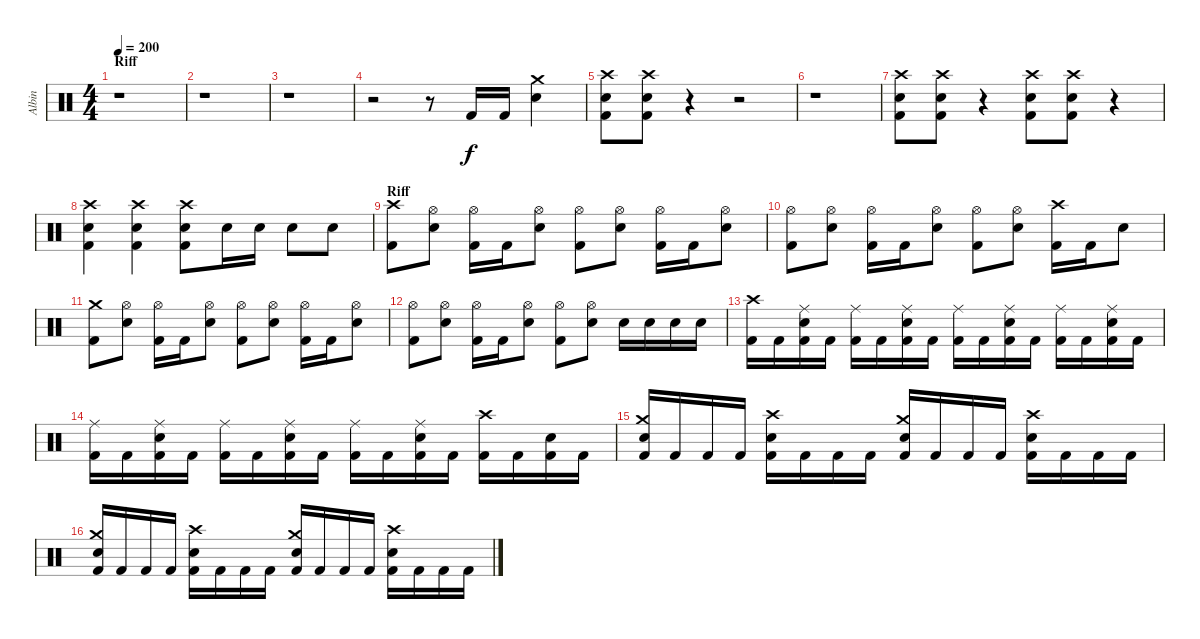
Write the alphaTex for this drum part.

\track ("Albin" "Albin") {instrument percussion}
\staff {score}
\articulation defaults
\ts (4 4)
\section ("" "Riff")
\tempo 200
\clef neutral
\ks c
r.1{dy f} |
r.1 |
r.1 |
r.2 r.8 "Kick (hit) 2".16 "Kick (hit) 2".16 ("Crash medium (hit)" "Snare (hit) 2").4 |
("Crash high (hit)" "Snare (hit) 2" "Kick (hit) 2").8 ("Crash high (hit)" "Snare (hit) 2" "Kick (hit) 2").8 r.4 r.2 |
r.1 |
("Crash high (hit)" "Snare (hit) 2" "Kick (hit) 2").8 ("Crash high (hit)" "Snare (hit) 2" "Kick (hit) 2").8 r.4 ("Crash high (hit)" "Snare (hit) 2" "Kick (hit) 2").8 ("Crash high (hit)" "Snare (hit) 2" "Kick (hit) 2").8 r.4 |
("Crash high (hit)" "Snare (hit) 2" "Kick (hit) 2").4 ("Crash high (hit)" "Snare (hit) 2" "Kick (hit) 2").4 ("Crash high (hit)" "Snare (hit) 2" "Kick (hit) 2").8 "Snare (hit) 2".16 "Snare (hit) 2".16 "Snare (hit) 2".8 "Snare (hit) 2".8 |
\section ("" "Riff")
("Crash high (hit)" "Kick (hit) 2").8 ("Hi-Hat (open)" "Snare (hit) 2").8 ("Hi-Hat (open)" "Kick (hit) 2").16 "Kick (hit) 2".16 ("Hi-Hat (open)" "Snare (hit) 2").8 ("Hi-Hat (open)" "Kick (hit) 2").8 ("Hi-Hat (open)" "Snare (hit) 2").8 ("Hi-Hat (open)" "Kick (hit) 2").16 "Kick (hit) 2".16 ("Hi-Hat (open)" "Snare (hit) 2").8 |
("Hi-Hat (open)" "Kick (hit) 2").8 ("Hi-Hat (open)" "Snare (hit) 2").8 ("Hi-Hat (open)" "Kick (hit) 2").16 "Kick (hit) 2".16 ("Hi-Hat (open)" "Snare (hit) 2").8 ("Hi-Hat (open)" "Kick (hit) 2").8 ("Hi-Hat (open)" "Snare (hit) 2").8 ("Crash high (hit)" "Kick (hit) 2").16 "Kick (hit) 2".16 "Snare (hit) 2".8 |
("Crash medium (hit)" "Kick (hit) 2").8 ("Hi-Hat (open)" "Snare (hit) 2").8 ("Hi-Hat (open)" "Kick (hit) 2").16 "Kick (hit) 2".16 ("Hi-Hat (open)" "Snare (hit) 2").8 ("Hi-Hat (open)" "Kick (hit) 2").8 ("Hi-Hat (open)" "Snare (hit) 2").8 ("Hi-Hat (open)" "Kick (hit) 2").16 "Kick (hit) 2".16 ("Hi-Hat (open)" "Snare (hit) 2").8 |
("Hi-Hat (open)" "Kick (hit) 2").8 ("Hi-Hat (open)" "Snare (hit) 2").8 ("Hi-Hat (open)" "Kick (hit) 2").16 "Kick (hit) 2".16 ("Hi-Hat (open)" "Snare (hit) 2").8 ("Hi-Hat (open)" "Kick (hit) 2").8 ("Hi-Hat (open)" "Snare (hit) 2").8 "Snare (hit) 2".16 "Snare (hit) 2".16 "Snare (hit) 2".16 "Snare (hit) 2".16 |
("Crash high (hit)" "Kick (hit) 2").16 "Kick (hit) 2".16 ("Ride (middle)" "Snare (hit) 2" "Kick (hit) 2").16 "Kick (hit) 2".16 ("Ride (middle)" "Kick (hit) 2").16 "Kick (hit) 2".16 ("Ride (middle)" "Snare (hit) 2" "Kick (hit) 2").16 "Kick (hit) 2".16 ("Ride (middle)" "Kick (hit) 2").16 "Kick (hit) 2".16 ("Ride (middle)" "Snare (hit) 2" "Kick (hit) 2").16 "Kick (hit) 2".16 ("Ride (middle)" "Kick (hit) 2").16 "Kick (hit) 2".16 ("Ride (middle)" "Snare (hit) 2" "Kick (hit) 2").16 "Kick (hit) 2".16 |
("Ride (middle)" "Kick (hit) 2").16 "Kick (hit) 2".16 ("Ride (middle)" "Snare (hit) 2" "Kick (hit) 2").16 "Kick (hit) 2".16 ("Ride (middle)" "Kick (hit) 2").16 "Kick (hit) 2".16 ("Ride (middle)" "Snare (hit) 2" "Kick (hit) 2").16 "Kick (hit) 2".16 ("Ride (middle)" "Kick (hit) 2").16 "Kick (hit) 2".16 ("Ride (middle)" "Snare (hit) 2" "Kick (hit) 2").16 "Kick (hit) 2".16 ("Crash high (hit)" "Kick (hit) 2").16 "Kick (hit) 2".16 ("Snare (hit) 2" "Kick (hit) 2").16 "Kick (hit) 2".16 |
("Crash medium (hit)" "Snare (hit) 2" "Kick (hit) 2").16 "Kick (hit) 2".16 "Kick (hit) 2".16 "Kick (hit) 2".16 ("Crash high (hit)" "Snare (hit) 2" "Kick (hit) 2").16 "Kick (hit) 2".16 "Kick (hit) 2".16 "Kick (hit) 2".16 ("Crash medium (hit)" "Snare (hit) 2" "Kick (hit) 2").16 "Kick (hit) 2".16 "Kick (hit) 2".16 "Kick (hit) 2".16 ("Crash high (hit)" "Snare (hit) 2" "Kick (hit) 2").16 "Kick (hit) 2".16 "Kick (hit) 2".16 "Kick (hit) 2".16 |
("Crash medium (hit)" "Snare (hit) 2" "Kick (hit) 2").16 "Kick (hit) 2".16 "Kick (hit) 2".16 "Kick (hit) 2".16 ("Crash high (hit)" "Snare (hit) 2" "Kick (hit) 2").16 "Kick (hit) 2".16 "Kick (hit) 2".16 "Kick (hit) 2".16 ("Crash medium (hit)" "Snare (hit) 2" "Kick (hit) 2").16 "Kick (hit) 2".16 "Kick (hit) 2".16 "Kick (hit) 2".16 ("Crash high (hit)" "Snare (hit) 2" "Kick (hit) 2").16 "Kick (hit) 2".16 "Kick (hit) 2".16 "Kick (hit) 2".16
